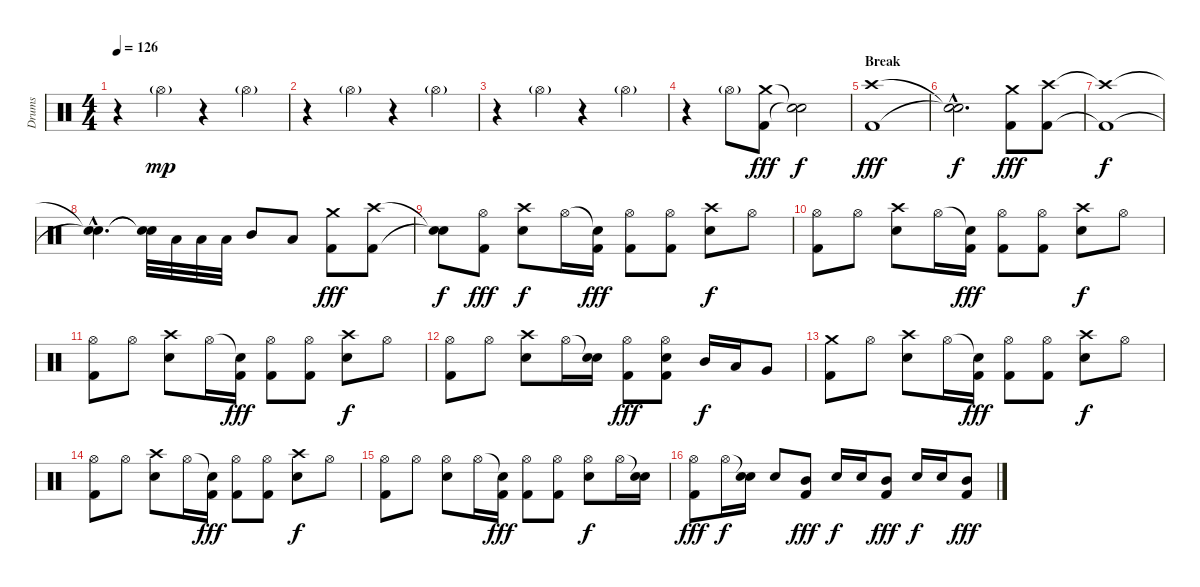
\track ("Drums" "Drums") {instrument percussion}
\staff {score}
\articulation defaults
\ts (4 4)
\tempo 126
\clef neutral
\ks c
r.4{dy mp} "Hi-Hat (open)"{g}.4 r.4 "Hi-Hat (open)"{g}.4 |
r.4 "Hi-Hat (open)"{g}.4 r.4 "Hi-Hat (open)"{g}.4 |
r.4 "Hi-Hat (open)"{g}.4 r.4 "Hi-Hat (open)"{g}.4 |
r.4 "Hi-Hat (open)"{g}.8 ("Crash medium (hit)" "Kick (hit) 2").8{dy fff} ("Snare (hit)"{t} "Snare (hit)"{t}).2{dy f} |
\section ("" "Break")
("Crash high (hit)" "Kick (hit) 2").1{dy fff} |
("Snare (hit)"{hac t} "Snare (hit)"{hac t}).2{d dy f} ("Crash medium (hit)" "Kick (hit) 2").8{dy fff} ("Crash high (hit)" "Kick (hit) 2").8 |
("Crash high (hit)"{t} "Kick (hit) 2"{t}).1{dy f} |
("Snare (hit)"{hac t} "Snare (hit)"{hac t}).4{d} ("Snare (hit)"{t} "Snare (hit)"{t}).32 "Low Tom (hit)".32 "Low Tom (hit)".32 "Low Tom (hit)".32 "Mid Tom (hit)".8 "Low Tom (hit)".8 ("Crash medium (hit)" "Kick (hit) 2").8{dy fff} ("Crash high (hit)" "Kick (hit) 2").8 |
("Snare (hit)"{t} "Snare (hit)"{t}).8{dy f} ("Hi-Hat (open)" "Kick (hit) 2").8{dy fff} ("Crash high (hit)" "Snare (hit) 2").8{dy f} "Hi-Hat (open)".16 ("Snare (hit)"{t} "Kick (hit) 2").16{dy fff} ("Hi-Hat (open)" "Kick (hit) 2").8 ("Hi-Hat (open)" "Kick (hit) 2").8 ("Crash high (hit)" "Snare (hit) 2").8{dy f} "Hi-Hat (open)".8 |
("Hi-Hat (open)" "Kick (hit) 2").8 "Hi-Hat (open)".8 ("Crash high (hit)" "Snare (hit) 2").8 "Hi-Hat (open)".16 ("Snare (hit)"{t} "Kick (hit) 2").16{dy fff} ("Hi-Hat (open)" "Kick (hit) 2").8 ("Hi-Hat (open)" "Kick (hit) 2").8 ("Crash high (hit)" "Snare (hit) 2").8{dy f} "Hi-Hat (open)".8 |
("Hi-Hat (open)" "Kick (hit) 2").8 "Hi-Hat (open)".8 ("Crash high (hit)" "Snare (hit) 2").8 "Hi-Hat (open)".16 ("Snare (hit)"{t} "Kick (hit) 2").16{dy fff} ("Hi-Hat (open)" "Kick (hit) 2").8 ("Hi-Hat (open)" "Kick (hit) 2").8 ("Crash high (hit)" "Snare (hit) 2").8{dy f} "Hi-Hat (open)".8 |
("Hi-Hat (open)" "Kick (hit) 2").8 "Hi-Hat (open)".8 ("Crash high (hit)" "Snare (hit) 2").8 "Hi-Hat (open)".16 ("Snare (hit)"{t} "Snare (hit) 2").16 ("Hi-Hat (open)" "Kick (hit) 2").8{dy fff} ("Hi-Hat (open)" "Snare (hit) 2" "Kick (hit) 2").8 "Mid Tom (hit)".16{dy f} "Low Tom (hit)".16 "Very Low Tom (hit)".8 |
("Crash medium (hit)" "Kick (hit) 2").8 "Hi-Hat (open)".8 ("Crash high (hit)" "Snare (hit) 2").8 "Hi-Hat (open)".16 ("Snare (hit)"{t} "Kick (hit) 2").16{dy fff} ("Hi-Hat (open)" "Kick (hit) 2").8 ("Hi-Hat (open)" "Kick (hit) 2").8 ("Crash high (hit)" "Snare (hit) 2").8{dy f} "Hi-Hat (open)".8 |
("Hi-Hat (open)" "Kick (hit) 2").8 "Hi-Hat (open)".8 ("Crash high (hit)" "Snare (hit) 2").8 "Hi-Hat (open)".16 ("Snare (hit)"{t} "Kick (hit) 2").16{dy fff} ("Hi-Hat (open)" "Kick (hit) 2").8 ("Hi-Hat (open)" "Kick (hit) 2").8 ("Crash high (hit)" "Snare (hit) 2").8{dy f} "Hi-Hat (open)".8 |
("Hi-Hat (open)" "Kick (hit) 2").8 "Hi-Hat (open)".8 ("Hi-Hat (open)" "Snare (hit) 2").8 "Hi-Hat (open)".16 ("Snare (hit)"{t} "Kick (hit) 2").16{dy fff} ("Hi-Hat (open)" "Kick (hit) 2").8 ("Hi-Hat (open)" "Kick (hit) 2").8 ("Hi-Hat (open)" "Snare (hit) 2").8{dy f} "Hi-Hat (open)".16 ("Snare (hit)"{t} "Snare (hit) 2").16 |
("Hi-Hat (open)" "Kick (hit) 2").8{dy fff} "Hi-Hat (open)".16{dy f} ("Snare (hit)"{t} "Snare (hit) 2").16 "Snare (hit) 2".8 ("Mid Tom (hit)" "Kick (hit) 2").8{dy fff} "Snare (hit) 2".16{dy f} "Snare (hit) 2".16 ("Mid Tom (hit)" "Kick (hit) 2").8{dy fff} "Snare (hit) 2".16{dy f} "Snare (hit) 2".16 ("Mid Tom (hit)" "Kick (hit) 2").8{dy fff}
